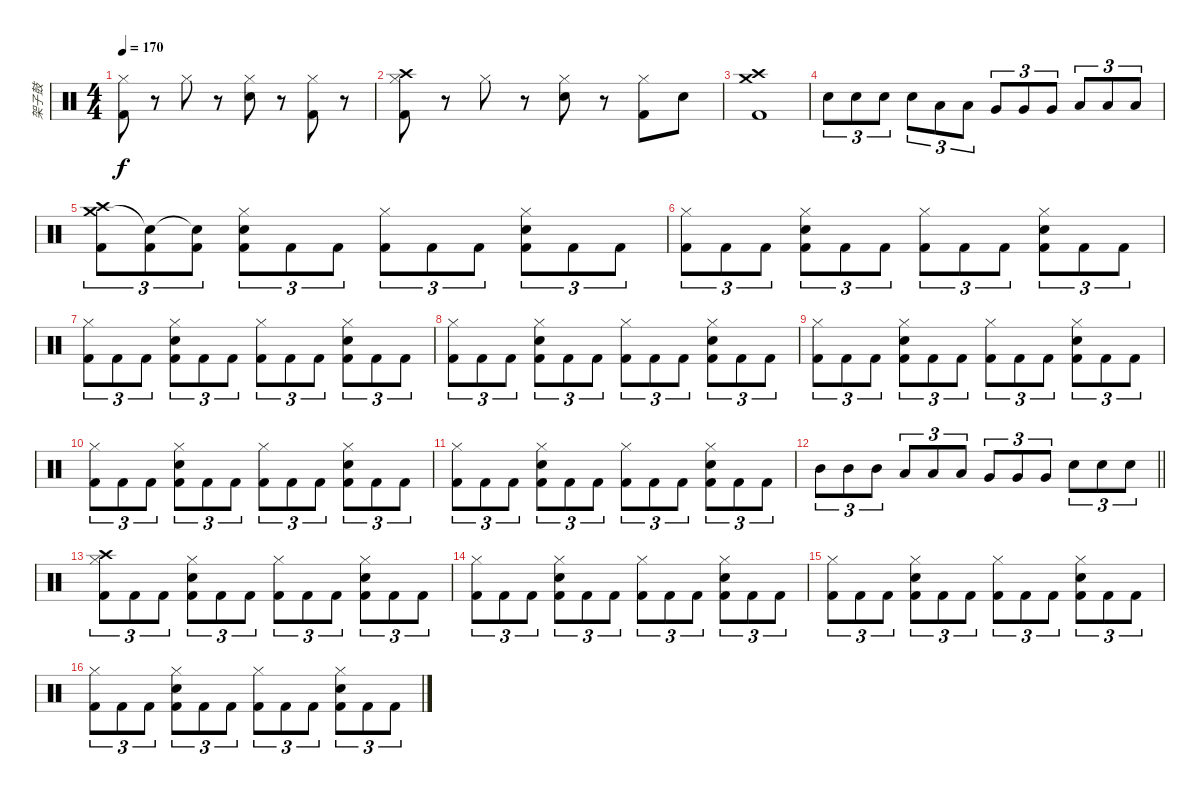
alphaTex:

\track ("架子鼓" "架子鼓") {instrument percussion}
\staff {score}
\articulation defaults
\ts (4 4)
\tempo 170
\clef neutral
\ks c
("Hi-Hat (closed)" "Kick (hit) 2").8{dy f} r.8 "Hi-Hat (closed)".8 r.8 ("Hi-Hat (closed)" "Snare (hit) 2").8 r.8 ("Hi-Hat (closed)" "Kick (hit) 2").8 r.8 |
("Hi-Hat (closed)" "Kick (hit) 2" "Crash high (hit)").8 r.8 "Hi-Hat (closed)".8 r.8 ("Hi-Hat (closed)" "Snare (hit) 2").8 r.8 ("Hi-Hat (closed)" "Kick (hit) 2").8 "Snare (hit) 2".8 |
("Kick (hit) 2" "Crash medium (hit)" "Crash high (hit)").1 |
"Snare (hit) 2".8{tu (3 2)} "Snare (hit) 2".8{tu (3 2)} "Snare (hit) 2".8{tu (3 2)} "Snare (hit) 2".8{tu (3 2)} "Low Tom (hit)".8{tu (3 2)} "Low Tom (hit)".8{tu (3 2)} "Very Low Tom (hit)".8{tu (3 2)} "Very Low Tom (hit)".8{tu (3 2)} "Very Low Tom (hit)".8{tu (3 2)} "Low Floor Tom (hit)".8{tu (3 2)} "Low Floor Tom (hit)".8{tu (3 2)} "Low Floor Tom (hit)".8{tu (3 2)} |
("Crash medium (hit)" "Kick (hit) 2" "Crash high (hit)").8{tu (3 2)} ("Snare (hit)"{t} "Kick (hit) 2").8{tu (3 2)} ("Snare (hit)"{t} "Kick (hit) 2").8{tu (3 2)} ("Hi-Hat (closed)" "Snare (hit) 2" "Kick (hit) 2").8{tu (3 2)} "Kick (hit) 2".8{tu (3 2)} "Kick (hit) 2".8{tu (3 2)} ("Hi-Hat (closed)" "Kick (hit) 2").8{tu (3 2)} "Kick (hit) 2".8{tu (3 2)} "Kick (hit) 2".8{tu (3 2)} ("Hi-Hat (closed)" "Snare (hit) 2" "Kick (hit) 2").8{tu (3 2)} "Kick (hit) 2".8{tu (3 2)} "Kick (hit) 2".8{tu (3 2)} |
("Hi-Hat (closed)" "Kick (hit) 2").8{tu (3 2)} "Kick (hit) 2".8{tu (3 2)} "Kick (hit) 2".8{tu (3 2)} ("Hi-Hat (closed)" "Snare (hit) 2" "Kick (hit) 2").8{tu (3 2)} "Kick (hit) 2".8{tu (3 2)} "Kick (hit) 2".8{tu (3 2)} ("Hi-Hat (closed)" "Kick (hit) 2").8{tu (3 2)} "Kick (hit) 2".8{tu (3 2)} "Kick (hit) 2".8{tu (3 2)} ("Hi-Hat (closed)" "Snare (hit) 2" "Kick (hit) 2").8{tu (3 2)} "Kick (hit) 2".8{tu (3 2)} "Kick (hit) 2".8{tu (3 2)} |
("Hi-Hat (closed)" "Kick (hit) 2").8{tu (3 2)} "Kick (hit) 2".8{tu (3 2)} "Kick (hit) 2".8{tu (3 2)} ("Hi-Hat (closed)" "Snare (hit) 2" "Kick (hit) 2").8{tu (3 2)} "Kick (hit) 2".8{tu (3 2)} "Kick (hit) 2".8{tu (3 2)} ("Hi-Hat (closed)" "Kick (hit) 2").8{tu (3 2)} "Kick (hit) 2".8{tu (3 2)} "Kick (hit) 2".8{tu (3 2)} ("Hi-Hat (closed)" "Snare (hit) 2" "Kick (hit) 2").8{tu (3 2)} "Kick (hit) 2".8{tu (3 2)} "Kick (hit) 2".8{tu (3 2)} |
("Hi-Hat (closed)" "Kick (hit) 2").8{tu (3 2)} "Kick (hit) 2".8{tu (3 2)} "Kick (hit) 2".8{tu (3 2)} ("Hi-Hat (closed)" "Snare (hit) 2" "Kick (hit) 2").8{tu (3 2)} "Kick (hit) 2".8{tu (3 2)} "Kick (hit) 2".8{tu (3 2)} ("Hi-Hat (closed)" "Kick (hit) 2").8{tu (3 2)} "Kick (hit) 2".8{tu (3 2)} "Kick (hit) 2".8{tu (3 2)} ("Hi-Hat (closed)" "Snare (hit) 2" "Kick (hit) 2").8{tu (3 2)} "Kick (hit) 2".8{tu (3 2)} "Kick (hit) 2".8{tu (3 2)} |
("Hi-Hat (closed)" "Kick (hit) 2").8{tu (3 2)} "Kick (hit) 2".8{tu (3 2)} "Kick (hit) 2".8{tu (3 2)} ("Hi-Hat (closed)" "Snare (hit) 2" "Kick (hit) 2").8{tu (3 2)} "Kick (hit) 2".8{tu (3 2)} "Kick (hit) 2".8{tu (3 2)} ("Hi-Hat (closed)" "Kick (hit) 2").8{tu (3 2)} "Kick (hit) 2".8{tu (3 2)} "Kick (hit) 2".8{tu (3 2)} ("Hi-Hat (closed)" "Snare (hit) 2" "Kick (hit) 2").8{tu (3 2)} "Kick (hit) 2".8{tu (3 2)} "Kick (hit) 2".8{tu (3 2)} |
("Hi-Hat (closed)" "Kick (hit) 2").8{tu (3 2)} "Kick (hit) 2".8{tu (3 2)} "Kick (hit) 2".8{tu (3 2)} ("Hi-Hat (closed)" "Snare (hit) 2" "Kick (hit) 2").8{tu (3 2)} "Kick (hit) 2".8{tu (3 2)} "Kick (hit) 2".8{tu (3 2)} ("Hi-Hat (closed)" "Kick (hit) 2").8{tu (3 2)} "Kick (hit) 2".8{tu (3 2)} "Kick (hit) 2".8{tu (3 2)} ("Hi-Hat (closed)" "Snare (hit) 2" "Kick (hit) 2").8{tu (3 2)} "Kick (hit) 2".8{tu (3 2)} "Kick (hit) 2".8{tu (3 2)} |
("Hi-Hat (closed)" "Kick (hit) 2").8{tu (3 2)} "Kick (hit) 2".8{tu (3 2)} "Kick (hit) 2".8{tu (3 2)} ("Hi-Hat (closed)" "Snare (hit) 2" "Kick (hit) 2").8{tu (3 2)} "Kick (hit) 2".8{tu (3 2)} "Kick (hit) 2".8{tu (3 2)} ("Hi-Hat (closed)" "Kick (hit) 2").8{tu (3 2)} "Kick (hit) 2".8{tu (3 2)} "Kick (hit) 2".8{tu (3 2)} ("Hi-Hat (closed)" "Snare (hit) 2" "Kick (hit) 2").8{tu (3 2)} "Kick (hit) 2".8{tu (3 2)} "Kick (hit) 2".8{tu (3 2)} |
\barLineRight lightlight "Mid Tom (hit)".8{tu (3 2)} "Mid Tom (hit)".8{tu (3 2)} "Mid Tom (hit)".8{tu (3 2)} "Low Tom (hit)".8{tu (3 2)} "Low Tom (hit)".8{tu (3 2)} "Low Tom (hit)".8{tu (3 2)} "Very Low Tom (hit)".8{tu (3 2)} "Very Low Tom (hit)".8{tu (3 2)} "Very Low Tom (hit)".8{tu (3 2)} "Snare (hit) 2".8{tu (3 2)} "Snare (hit) 2".8{tu (3 2)} "Snare (hit) 2".8{tu (3 2)}
|
("Hi-Hat (closed)" "Kick (hit) 2" "Crash high (hit)").8{tu (3 2)} "Kick (hit) 2".8{tu (3 2)} "Kick (hit) 2".8{tu (3 2)} ("Hi-Hat (closed)" "Snare (hit) 2" "Kick (hit) 2").8{tu (3 2)} "Kick (hit) 2".8{tu (3 2)} "Kick (hit) 2".8{tu (3 2)} ("Hi-Hat (closed)" "Kick (hit) 2").8{tu (3 2)} "Kick (hit) 2".8{tu (3 2)} "Kick (hit) 2".8{tu (3 2)} ("Hi-Hat (closed)" "Snare (hit) 2" "Kick (hit) 2").8{tu (3 2)} "Kick (hit) 2".8{tu (3 2)} "Kick (hit) 2".8{tu (3 2)} |
("Hi-Hat (closed)" "Kick (hit) 2").8{tu (3 2)} "Kick (hit) 2".8{tu (3 2)} "Kick (hit) 2".8{tu (3 2)} ("Hi-Hat (closed)" "Snare (hit) 2" "Kick (hit) 2").8{tu (3 2)} "Kick (hit) 2".8{tu (3 2)} "Kick (hit) 2".8{tu (3 2)} ("Hi-Hat (closed)" "Kick (hit) 2").8{tu (3 2)} "Kick (hit) 2".8{tu (3 2)} "Kick (hit) 2".8{tu (3 2)} ("Hi-Hat (closed)" "Snare (hit) 2" "Kick (hit) 2").8{tu (3 2)} "Kick (hit) 2".8{tu (3 2)} "Kick (hit) 2".8{tu (3 2)} |
("Hi-Hat (closed)" "Kick (hit) 2").8{tu (3 2)} "Kick (hit) 2".8{tu (3 2)} "Kick (hit) 2".8{tu (3 2)} ("Hi-Hat (closed)" "Snare (hit) 2" "Kick (hit) 2").8{tu (3 2)} "Kick (hit) 2".8{tu (3 2)} "Kick (hit) 2".8{tu (3 2)} ("Hi-Hat (closed)" "Kick (hit) 2").8{tu (3 2)} "Kick (hit) 2".8{tu (3 2)} "Kick (hit) 2".8{tu (3 2)} ("Hi-Hat (closed)" "Snare (hit) 2" "Kick (hit) 2").8{tu (3 2)} "Kick (hit) 2".8{tu (3 2)} "Kick (hit) 2".8{tu (3 2)} |
("Hi-Hat (closed)" "Kick (hit) 2").8{tu (3 2)} "Kick (hit) 2".8{tu (3 2)} "Kick (hit) 2".8{tu (3 2)} ("Hi-Hat (closed)" "Snare (hit) 2" "Kick (hit) 2").8{tu (3 2)} "Kick (hit) 2".8{tu (3 2)} "Kick (hit) 2".8{tu (3 2)} ("Hi-Hat (closed)" "Kick (hit) 2").8{tu (3 2)} "Kick (hit) 2".8{tu (3 2)} "Kick (hit) 2".8{tu (3 2)} ("Hi-Hat (closed)" "Snare (hit) 2" "Kick (hit) 2").8{tu (3 2)} "Kick (hit) 2".8{tu (3 2)} "Kick (hit) 2".8{tu (3 2)}
